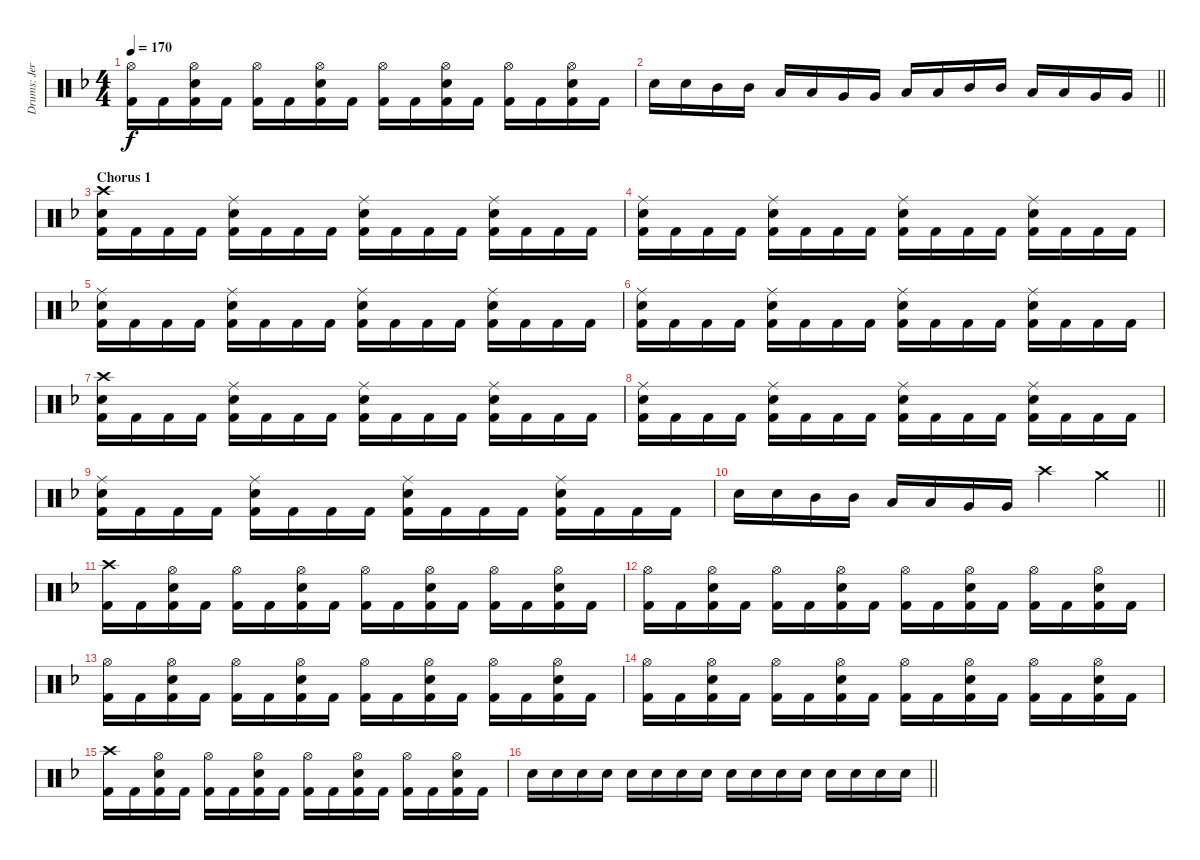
\track ("Drums: Jere Luokkamäki" "Drums: Jer") {instrument percussion}
\staff {score}
\articulation defaults
\ts (4 4)
\tempo 170
\clef neutral
\ks dminor
("Hi-Hat (open)" "Kick (hit) 2").16{dy f} "Kick (hit) 2".16 ("Hi-Hat (open)" "Electric Snare (hit)" "Kick (hit) 2").16 "Kick (hit) 2".16 ("Hi-Hat (open)" "Kick (hit) 2").16 "Kick (hit) 2".16 ("Hi-Hat (open)" "Electric Snare (hit)" "Kick (hit) 2").16 "Kick (hit) 2".16 ("Hi-Hat (open)" "Kick (hit) 2").16 "Kick (hit) 2".16 ("Hi-Hat (open)" "Electric Snare (hit)" "Kick (hit) 2").16 "Kick (hit) 2".16 ("Hi-Hat (open)" "Kick (hit) 2").16 "Kick (hit) 2".16 ("Hi-Hat (open)" "Electric Snare (hit)" "Kick (hit) 2").16 "Kick (hit) 2".16 |
\barLineRight lightlight "Electric Snare (hit)".16 "Electric Snare (hit)".16 "Mid Tom (hit)".16 "Mid Tom (hit)".16 "Low Tom (hit)".16 "Low Tom (hit)".16 "Very Low Tom (hit)".16 "Very Low Tom (hit)".16 "Low Tom (hit)".16 "Low Tom (hit)".16 "Mid Tom (hit)".16 "Mid Tom (hit)".16 "Low Tom (hit)".16 "Low Tom (hit)".16 "Very Low Tom (hit)".16 "Very Low Tom (hit)".16
|
\section ("" "Chorus 1")
("Crash high (hit)" "Electric Snare (hit)" "Kick (hit) 2").16 "Kick (hit) 2".16 "Kick (hit) 2".16 "Kick (hit) 2".16 ("Ride (middle)" "Electric Snare (hit)" "Kick (hit) 2").16 "Kick (hit) 2".16 "Kick (hit) 2".16 "Kick (hit) 2".16 ("Ride (middle)" "Electric Snare (hit)" "Kick (hit) 2").16 "Kick (hit) 2".16 "Kick (hit) 2".16 "Kick (hit) 2".16 ("Ride (middle)" "Electric Snare (hit)" "Kick (hit) 2").16 "Kick (hit) 2".16 "Kick (hit) 2".16 "Kick (hit) 2".16 |
("Ride (middle)" "Electric Snare (hit)" "Kick (hit) 2").16 "Kick (hit) 2".16 "Kick (hit) 2".16 "Kick (hit) 2".16 ("Ride (middle)" "Electric Snare (hit)" "Kick (hit) 2").16 "Kick (hit) 2".16 "Kick (hit) 2".16 "Kick (hit) 2".16 ("Ride (middle)" "Electric Snare (hit)" "Kick (hit) 2").16 "Kick (hit) 2".16 "Kick (hit) 2".16 "Kick (hit) 2".16 ("Ride (middle)" "Electric Snare (hit)" "Kick (hit) 2").16 "Kick (hit) 2".16 "Kick (hit) 2".16 "Kick (hit) 2".16 |
("Ride (middle)" "Electric Snare (hit)" "Kick (hit) 2").16 "Kick (hit) 2".16 "Kick (hit) 2".16 "Kick (hit) 2".16 ("Ride (middle)" "Electric Snare (hit)" "Kick (hit) 2").16 "Kick (hit) 2".16 "Kick (hit) 2".16 "Kick (hit) 2".16 ("Ride (middle)" "Electric Snare (hit)" "Kick (hit) 2").16 "Kick (hit) 2".16 "Kick (hit) 2".16 "Kick (hit) 2".16 ("Ride (middle)" "Electric Snare (hit)" "Kick (hit) 2").16 "Kick (hit) 2".16 "Kick (hit) 2".16 "Kick (hit) 2".16 |
("Ride (middle)" "Electric Snare (hit)" "Kick (hit) 2").16 "Kick (hit) 2".16 "Kick (hit) 2".16 "Kick (hit) 2".16 ("Ride (middle)" "Electric Snare (hit)" "Kick (hit) 2").16 "Kick (hit) 2".16 "Kick (hit) 2".16 "Kick (hit) 2".16 ("Ride (middle)" "Electric Snare (hit)" "Kick (hit) 2").16 "Kick (hit) 2".16 "Kick (hit) 2".16 "Kick (hit) 2".16 ("Ride (middle)" "Electric Snare (hit)" "Kick (hit) 2").16 "Kick (hit) 2".16 "Kick (hit) 2".16 "Kick (hit) 2".16 |
("Crash high (hit)" "Electric Snare (hit)" "Kick (hit) 2").16 "Kick (hit) 2".16 "Kick (hit) 2".16 "Kick (hit) 2".16 ("Ride (middle)" "Electric Snare (hit)" "Kick (hit) 2").16 "Kick (hit) 2".16 "Kick (hit) 2".16 "Kick (hit) 2".16 ("Ride (middle)" "Electric Snare (hit)" "Kick (hit) 2").16 "Kick (hit) 2".16 "Kick (hit) 2".16 "Kick (hit) 2".16 ("Ride (middle)" "Electric Snare (hit)" "Kick (hit) 2").16 "Kick (hit) 2".16 "Kick (hit) 2".16 "Kick (hit) 2".16 |
("Ride (middle)" "Electric Snare (hit)" "Kick (hit) 2").16 "Kick (hit) 2".16 "Kick (hit) 2".16 "Kick (hit) 2".16 ("Ride (middle)" "Electric Snare (hit)" "Kick (hit) 2").16 "Kick (hit) 2".16 "Kick (hit) 2".16 "Kick (hit) 2".16 ("Ride (middle)" "Electric Snare (hit)" "Kick (hit) 2").16 "Kick (hit) 2".16 "Kick (hit) 2".16 "Kick (hit) 2".16 ("Ride (middle)" "Electric Snare (hit)" "Kick (hit) 2").16 "Kick (hit) 2".16 "Kick (hit) 2".16 "Kick (hit) 2".16 |
("Ride (middle)" "Electric Snare (hit)" "Kick (hit) 2").16 "Kick (hit) 2".16 "Kick (hit) 2".16 "Kick (hit) 2".16 ("Ride (middle)" "Electric Snare (hit)" "Kick (hit) 2").16 "Kick (hit) 2".16 "Kick (hit) 2".16 "Kick (hit) 2".16 ("Ride (middle)" "Electric Snare (hit)" "Kick (hit) 2").16 "Kick (hit) 2".16 "Kick (hit) 2".16 "Kick (hit) 2".16 ("Ride (middle)" "Electric Snare (hit)" "Kick (hit) 2").16 "Kick (hit) 2".16 "Kick (hit) 2".16 "Kick (hit) 2".16 |
\barLineRight lightlight "Electric Snare (hit)".16 "Electric Snare (hit)".16 "Mid Tom (hit)".16 "Mid Tom (hit)".16 "Low Tom (hit)".16 "Low Tom (hit)".16 "Very Low Tom (hit)".16 "Very Low Tom (hit)".16 "Crash high (hit)".4 "Crash medium (hit)".4
|
("Crash high (hit)" "Kick (hit) 2").16 "Kick (hit) 2".16 ("Hi-Hat (open)" "Electric Snare (hit)" "Kick (hit) 2").16 "Kick (hit) 2".16 ("Hi-Hat (open)" "Kick (hit) 2").16 "Kick (hit) 2".16 ("Hi-Hat (open)" "Electric Snare (hit)" "Kick (hit) 2").16 "Kick (hit) 2".16 ("Hi-Hat (open)" "Kick (hit) 2").16 "Kick (hit) 2".16 ("Hi-Hat (open)" "Electric Snare (hit)" "Kick (hit) 2").16 "Kick (hit) 2".16 ("Hi-Hat (open)" "Kick (hit) 2").16 "Kick (hit) 2".16 ("Hi-Hat (open)" "Electric Snare (hit)" "Kick (hit) 2").16 "Kick (hit) 2".16 |
("Hi-Hat (open)" "Kick (hit) 2").16 "Kick (hit) 2".16 ("Hi-Hat (open)" "Electric Snare (hit)" "Kick (hit) 2").16 "Kick (hit) 2".16 ("Hi-Hat (open)" "Kick (hit) 2").16 "Kick (hit) 2".16 ("Hi-Hat (open)" "Electric Snare (hit)" "Kick (hit) 2").16 "Kick (hit) 2".16 ("Hi-Hat (open)" "Kick (hit) 2").16 "Kick (hit) 2".16 ("Hi-Hat (open)" "Electric Snare (hit)" "Kick (hit) 2").16 "Kick (hit) 2".16 ("Hi-Hat (open)" "Kick (hit) 2").16 "Kick (hit) 2".16 ("Hi-Hat (open)" "Electric Snare (hit)" "Kick (hit) 2").16 "Kick (hit) 2".16 |
("Hi-Hat (open)" "Kick (hit) 2").16 "Kick (hit) 2".16 ("Hi-Hat (open)" "Electric Snare (hit)" "Kick (hit) 2").16 "Kick (hit) 2".16 ("Hi-Hat (open)" "Kick (hit) 2").16 "Kick (hit) 2".16 ("Hi-Hat (open)" "Electric Snare (hit)" "Kick (hit) 2").16 "Kick (hit) 2".16 ("Hi-Hat (open)" "Kick (hit) 2").16 "Kick (hit) 2".16 ("Hi-Hat (open)" "Electric Snare (hit)" "Kick (hit) 2").16 "Kick (hit) 2".16 ("Hi-Hat (open)" "Kick (hit) 2").16 "Kick (hit) 2".16 ("Hi-Hat (open)" "Electric Snare (hit)" "Kick (hit) 2").16 "Kick (hit) 2".16 |
("Hi-Hat (open)" "Kick (hit) 2").16 "Kick (hit) 2".16 ("Hi-Hat (open)" "Electric Snare (hit)" "Kick (hit) 2").16 "Kick (hit) 2".16 ("Hi-Hat (open)" "Kick (hit) 2").16 "Kick (hit) 2".16 ("Hi-Hat (open)" "Electric Snare (hit)" "Kick (hit) 2").16 "Kick (hit) 2".16 ("Hi-Hat (open)" "Kick (hit) 2").16 "Kick (hit) 2".16 ("Hi-Hat (open)" "Electric Snare (hit)" "Kick (hit) 2").16 "Kick (hit) 2".16 ("Hi-Hat (open)" "Kick (hit) 2").16 "Kick (hit) 2".16 ("Hi-Hat (open)" "Electric Snare (hit)" "Kick (hit) 2").16 "Kick (hit) 2".16 |
("Crash high (hit)" "Kick (hit) 2").16 "Kick (hit) 2".16 ("Hi-Hat (open)" "Electric Snare (hit)" "Kick (hit) 2").16 "Kick (hit) 2".16 ("Hi-Hat (open)" "Kick (hit) 2").16 "Kick (hit) 2".16 ("Hi-Hat (open)" "Electric Snare (hit)" "Kick (hit) 2").16 "Kick (hit) 2".16 ("Hi-Hat (open)" "Kick (hit) 2").16 "Kick (hit) 2".16 ("Hi-Hat (open)" "Electric Snare (hit)" "Kick (hit) 2").16 "Kick (hit) 2".16 ("Hi-Hat (open)" "Kick (hit) 2").16 "Kick (hit) 2".16 ("Hi-Hat (open)" "Electric Snare (hit)" "Kick (hit) 2").16 "Kick (hit) 2".16 |
\barLineRight lightlight "Electric Snare (hit)".16 "Electric Snare (hit)".16 "Electric Snare (hit)".16 "Electric Snare (hit)".16 "Electric Snare (hit)".16 "Electric Snare (hit)".16 "Electric Snare (hit)".16 "Electric Snare (hit)".16 "Electric Snare (hit)".16 "Electric Snare (hit)".16 "Electric Snare (hit)".16 "Electric Snare (hit)".16 "Electric Snare (hit)".16 "Electric Snare (hit)".16 "Electric Snare (hit)".16 "Electric Snare (hit)".16
